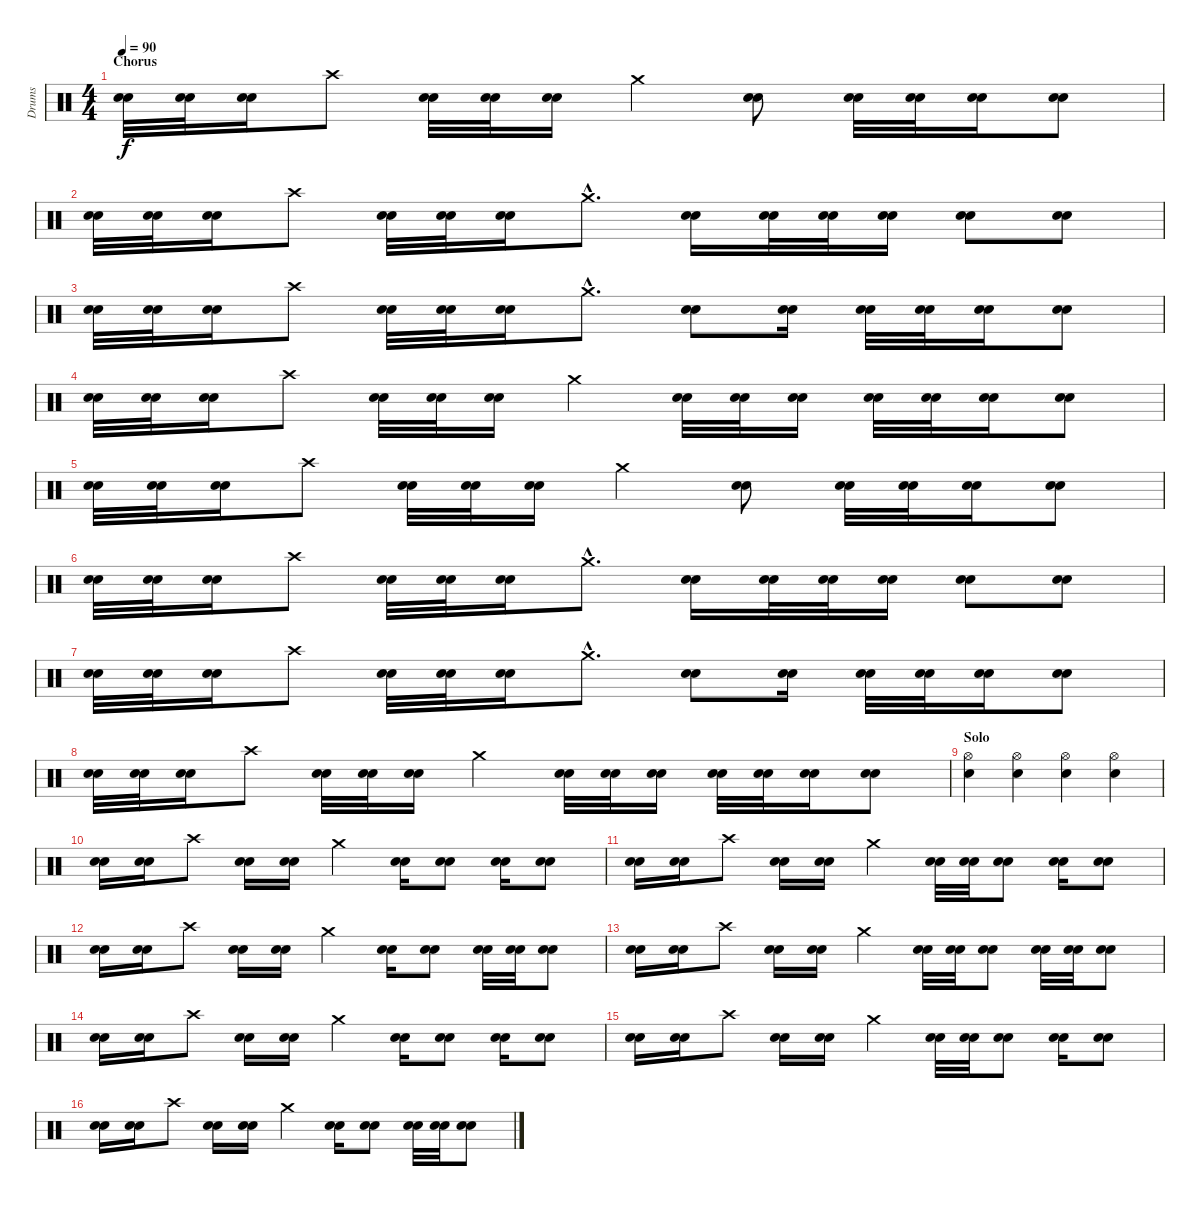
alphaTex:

\track ("Drums" "Drums") {instrument percussion}
\staff {score}
\articulation defaults
\ts (4 4)
\section ("" "Chorus")
\tempo 90
\clef neutral
\ks c
("Electric Snare (hit)" "Snare (hit) 2").32{dy f} ("Electric Snare (hit)" "Snare (hit) 2").32 ("Electric Snare (hit)" "Snare (hit) 2").16 "Crash high (hit)".8 ("Electric Snare (hit)" "Snare (hit) 2").32 ("Electric Snare (hit)" "Snare (hit) 2").32 ("Electric Snare (hit)" "Snare (hit) 2").16 "Crash medium (hit)".4 ("Electric Snare (hit)" "Snare (hit) 2").8 ("Electric Snare (hit)" "Snare (hit) 2").32 ("Electric Snare (hit)" "Snare (hit) 2").32 ("Electric Snare (hit)" "Snare (hit) 2").16 ("Electric Snare (hit)" "Snare (hit) 2").8 |
("Electric Snare (hit)" "Snare (hit) 2").32 ("Electric Snare (hit)" "Snare (hit) 2").32 ("Electric Snare (hit)" "Snare (hit) 2").16 "Crash high (hit)".8 ("Electric Snare (hit)" "Snare (hit) 2").32 ("Electric Snare (hit)" "Snare (hit) 2").32 ("Electric Snare (hit)" "Snare (hit) 2").16 "Crash medium (hit)"{hac}.8{d} ("Electric Snare (hit)" "Snare (hit) 2").16 ("Electric Snare (hit)" "Snare (hit) 2").32 ("Electric Snare (hit)" "Snare (hit) 2").32 ("Electric Snare (hit)" "Snare (hit) 2").16 ("Electric Snare (hit)" "Snare (hit) 2").8 ("Electric Snare (hit)" "Snare (hit) 2").8 |
("Electric Snare (hit)" "Snare (hit) 2").32 ("Electric Snare (hit)" "Snare (hit) 2").32 ("Electric Snare (hit)" "Snare (hit) 2").16 "Crash high (hit)".8 ("Electric Snare (hit)" "Snare (hit) 2").32 ("Electric Snare (hit)" "Snare (hit) 2").32 ("Electric Snare (hit)" "Snare (hit) 2").16 "Crash medium (hit)"{hac}.8{d} ("Electric Snare (hit)" "Snare (hit) 2").8 ("Electric Snare (hit)" "Snare (hit) 2").16 ("Electric Snare (hit)" "Snare (hit) 2").32 ("Electric Snare (hit)" "Snare (hit) 2").32 ("Electric Snare (hit)" "Snare (hit) 2").16 ("Electric Snare (hit)" "Snare (hit) 2").8 |
("Electric Snare (hit)" "Snare (hit) 2").32 ("Electric Snare (hit)" "Snare (hit) 2").32 ("Electric Snare (hit)" "Snare (hit) 2").16 "Crash high (hit)".8 ("Electric Snare (hit)" "Snare (hit) 2").32 ("Electric Snare (hit)" "Snare (hit) 2").32 ("Electric Snare (hit)" "Snare (hit) 2").16 "Crash medium (hit)".4 ("Electric Snare (hit)" "Snare (hit) 2").32 ("Electric Snare (hit)" "Snare (hit) 2").32 ("Electric Snare (hit)" "Snare (hit) 2").16 ("Electric Snare (hit)" "Snare (hit) 2").32 ("Electric Snare (hit)" "Snare (hit) 2").32 ("Electric Snare (hit)" "Snare (hit) 2").16 ("Electric Snare (hit)" "Snare (hit) 2").8 |
("Electric Snare (hit)" "Snare (hit) 2").32 ("Electric Snare (hit)" "Snare (hit) 2").32 ("Electric Snare (hit)" "Snare (hit) 2").16 "Crash high (hit)".8 ("Electric Snare (hit)" "Snare (hit) 2").32 ("Electric Snare (hit)" "Snare (hit) 2").32 ("Electric Snare (hit)" "Snare (hit) 2").16 "Crash medium (hit)".4 ("Electric Snare (hit)" "Snare (hit) 2").8 ("Electric Snare (hit)" "Snare (hit) 2").32 ("Electric Snare (hit)" "Snare (hit) 2").32 ("Electric Snare (hit)" "Snare (hit) 2").16 ("Electric Snare (hit)" "Snare (hit) 2").8 |
("Electric Snare (hit)" "Snare (hit) 2").32 ("Electric Snare (hit)" "Snare (hit) 2").32 ("Electric Snare (hit)" "Snare (hit) 2").16 "Crash high (hit)".8 ("Electric Snare (hit)" "Snare (hit) 2").32 ("Electric Snare (hit)" "Snare (hit) 2").32 ("Electric Snare (hit)" "Snare (hit) 2").16 "Crash medium (hit)"{hac}.8{d} ("Electric Snare (hit)" "Snare (hit) 2").16 ("Electric Snare (hit)" "Snare (hit) 2").32 ("Electric Snare (hit)" "Snare (hit) 2").32 ("Electric Snare (hit)" "Snare (hit) 2").16 ("Electric Snare (hit)" "Snare (hit) 2").8 ("Electric Snare (hit)" "Snare (hit) 2").8 |
("Electric Snare (hit)" "Snare (hit) 2").32 ("Electric Snare (hit)" "Snare (hit) 2").32 ("Electric Snare (hit)" "Snare (hit) 2").16 "Crash high (hit)".8 ("Electric Snare (hit)" "Snare (hit) 2").32 ("Electric Snare (hit)" "Snare (hit) 2").32 ("Electric Snare (hit)" "Snare (hit) 2").16 "Crash medium (hit)"{hac}.8{d} ("Electric Snare (hit)" "Snare (hit) 2").8 ("Electric Snare (hit)" "Snare (hit) 2").16 ("Electric Snare (hit)" "Snare (hit) 2").32 ("Electric Snare (hit)" "Snare (hit) 2").32 ("Electric Snare (hit)" "Snare (hit) 2").16 ("Electric Snare (hit)" "Snare (hit) 2").8 |
("Electric Snare (hit)" "Snare (hit) 2").32 ("Electric Snare (hit)" "Snare (hit) 2").32 ("Electric Snare (hit)" "Snare (hit) 2").16 "Crash high (hit)".8 ("Electric Snare (hit)" "Snare (hit) 2").32 ("Electric Snare (hit)" "Snare (hit) 2").32 ("Electric Snare (hit)" "Snare (hit) 2").16 "Crash medium (hit)".4 ("Electric Snare (hit)" "Snare (hit) 2").32 ("Electric Snare (hit)" "Snare (hit) 2").32 ("Electric Snare (hit)" "Snare (hit) 2").16 ("Electric Snare (hit)" "Snare (hit) 2").32 ("Electric Snare (hit)" "Snare (hit) 2").32 ("Electric Snare (hit)" "Snare (hit) 2").16 ("Electric Snare (hit)" "Snare (hit) 2").8 |
\section ("" "Solo")
("Electric Snare (hit)" "Hi-Hat (open)").4 ("Electric Snare (hit)" "Hi-Hat (open)").4 ("Electric Snare (hit)" "Hi-Hat (open)").4 ("Electric Snare (hit)" "Hi-Hat (open)").4 |
("Electric Snare (hit)" "Snare (hit) 2").16 ("Electric Snare (hit)" "Snare (hit) 2").16 "Crash high (hit)".8 ("Electric Snare (hit)" "Snare (hit) 2").16 ("Electric Snare (hit)" "Snare (hit) 2").16 "Crash medium (hit)".4 ("Electric Snare (hit)" "Snare (hit) 2").16 ("Electric Snare (hit)" "Snare (hit) 2").8 ("Electric Snare (hit)" "Snare (hit) 2").16 ("Electric Snare (hit)" "Snare (hit) 2").8 |
("Electric Snare (hit)" "Snare (hit) 2").16 ("Electric Snare (hit)" "Snare (hit) 2").16 "Crash high (hit)".8 ("Electric Snare (hit)" "Snare (hit) 2").16 ("Electric Snare (hit)" "Snare (hit) 2").16 "Crash medium (hit)".4 ("Electric Snare (hit)" "Snare (hit) 2").32 ("Electric Snare (hit)" "Snare (hit) 2").32 ("Electric Snare (hit)" "Snare (hit) 2").8 ("Electric Snare (hit)" "Snare (hit) 2").16 ("Electric Snare (hit)" "Snare (hit) 2").8 |
("Electric Snare (hit)" "Snare (hit) 2").16 ("Electric Snare (hit)" "Snare (hit) 2").16 "Crash high (hit)".8 ("Electric Snare (hit)" "Snare (hit) 2").16 ("Electric Snare (hit)" "Snare (hit) 2").16 "Crash medium (hit)".4 ("Electric Snare (hit)" "Snare (hit) 2").16 ("Electric Snare (hit)" "Snare (hit) 2").8 ("Electric Snare (hit)" "Snare (hit) 2").32 ("Electric Snare (hit)" "Snare (hit) 2").32 ("Electric Snare (hit)" "Snare (hit) 2").8 |
("Electric Snare (hit)" "Snare (hit) 2").16 ("Electric Snare (hit)" "Snare (hit) 2").16 "Crash high (hit)".8 ("Electric Snare (hit)" "Snare (hit) 2").16 ("Electric Snare (hit)" "Snare (hit) 2").16 "Crash medium (hit)".4 ("Electric Snare (hit)" "Snare (hit) 2").32 ("Electric Snare (hit)" "Snare (hit) 2").32 ("Electric Snare (hit)" "Snare (hit) 2").8 ("Electric Snare (hit)" "Snare (hit) 2").32 ("Electric Snare (hit)" "Snare (hit) 2").32 ("Electric Snare (hit)" "Snare (hit) 2").8 |
("Electric Snare (hit)" "Snare (hit) 2").16 ("Electric Snare (hit)" "Snare (hit) 2").16 "Crash high (hit)".8 ("Electric Snare (hit)" "Snare (hit) 2").16 ("Electric Snare (hit)" "Snare (hit) 2").16 "Crash medium (hit)".4 ("Electric Snare (hit)" "Snare (hit) 2").16 ("Electric Snare (hit)" "Snare (hit) 2").8 ("Electric Snare (hit)" "Snare (hit) 2").16 ("Electric Snare (hit)" "Snare (hit) 2").8 |
("Electric Snare (hit)" "Snare (hit) 2").16 ("Electric Snare (hit)" "Snare (hit) 2").16 "Crash high (hit)".8 ("Electric Snare (hit)" "Snare (hit) 2").16 ("Electric Snare (hit)" "Snare (hit) 2").16 "Crash medium (hit)".4 ("Electric Snare (hit)" "Snare (hit) 2").32 ("Electric Snare (hit)" "Snare (hit) 2").32 ("Electric Snare (hit)" "Snare (hit) 2").8 ("Electric Snare (hit)" "Snare (hit) 2").16 ("Electric Snare (hit)" "Snare (hit) 2").8 |
("Electric Snare (hit)" "Snare (hit) 2").16 ("Electric Snare (hit)" "Snare (hit) 2").16 "Crash high (hit)".8 ("Electric Snare (hit)" "Snare (hit) 2").16 ("Electric Snare (hit)" "Snare (hit) 2").16 "Crash medium (hit)".4 ("Electric Snare (hit)" "Snare (hit) 2").16 ("Electric Snare (hit)" "Snare (hit) 2").8 ("Electric Snare (hit)" "Snare (hit) 2").32 ("Electric Snare (hit)" "Snare (hit) 2").32 ("Electric Snare (hit)" "Snare (hit) 2").8
